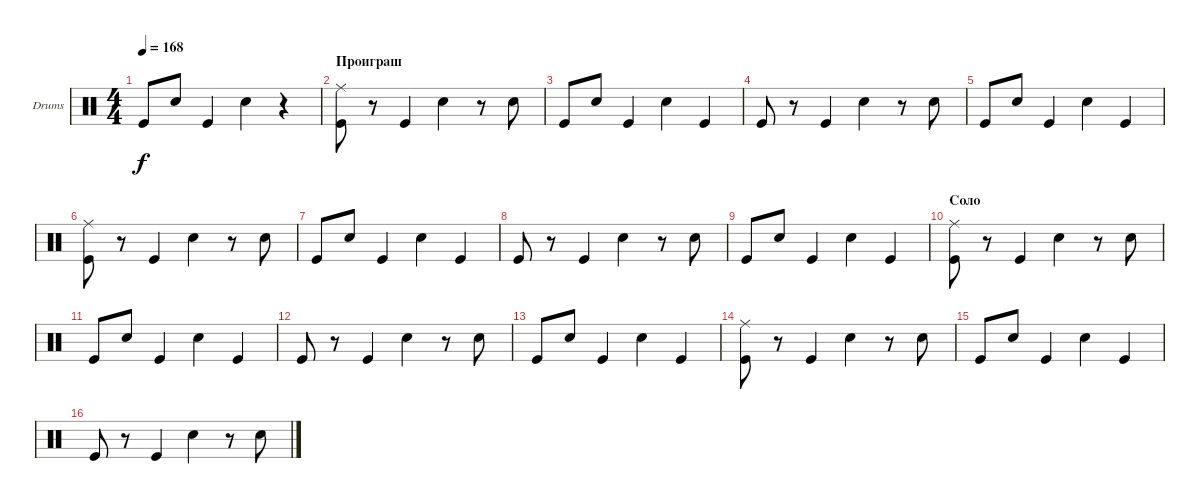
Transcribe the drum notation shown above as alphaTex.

\defaultSystemsLayout 4
\bracketExtendMode groupsimilarinstruments
\firstSystemTrackNameOrientation horizontal
\otherSystemsTrackNameOrientation horizontal
\track ("Е. Кулаков" "Drums") {instrument percussion}
\staff {score}
\articulation defaults
\ts (4 4)
\tempo 168
\clef neutral
\scale
0.333333
\ks c "Kick (hit)".8{dy f} "Snare (hit) 2".8 "Kick (hit)".4 "Snare (hit) 2".4
r.4 |
\section ("" "Проиграш")
\scale
0.333333 ("Kick (hit)" "Ride (middle)").8 r.8 "Kick (hit)".4 "Snare (hit) 2".4 r.8 "Snare (hit) 2".8 |
\scale
0.333333 "Kick (hit)".8 "Snare (hit) 2".8 "Kick (hit)".4 "Snare (hit) 2".4 "Kick (hit)".4 |
\scale
0.333333 "Kick (hit)".8 r.8 "Kick (hit)".4 "Snare (hit) 2".4 r.8 "Snare (hit) 2".8 |
\scale
0.333333 "Kick (hit)".8 "Snare (hit) 2".8 "Kick (hit)".4 "Snare (hit) 2".4 "Kick (hit)".4 |
\scale
0.333333 ("Kick (hit)" "Ride (middle)").8 r.8 "Kick (hit)".4 "Snare (hit) 2".4 r.8 "Snare (hit) 2".8 |
\scale
0.333333 "Kick (hit)".8 "Snare (hit) 2".8 "Kick (hit)".4 "Snare (hit) 2".4 "Kick (hit)".4 |
\scale
0.333333 "Kick (hit)".8 r.8 "Kick (hit)".4 "Snare (hit) 2".4 r.8 "Snare (hit) 2".8 |
\scale
0.333333 "Kick (hit)".8 "Snare (hit) 2".8 "Kick (hit)".4 "Snare (hit) 2".4 "Kick (hit)".4 |
\section ("" "Соло")
\scale
0.333333 ("Kick (hit)" "Ride (middle)").8 r.8 "Kick (hit)".4 "Snare (hit) 2".4 r.8 "Snare (hit) 2".8 |
\scale
0.333333 "Kick (hit)".8 "Snare (hit) 2".8 "Kick (hit)".4 "Snare (hit) 2".4 "Kick (hit)".4 |
\scale
0.333333 "Kick (hit)".8 r.8 "Kick (hit)".4 "Snare (hit) 2".4 r.8 "Snare (hit) 2".8 |
\scale
0.333333 "Kick (hit)".8 "Snare (hit) 2".8 "Kick (hit)".4 "Snare (hit) 2".4 "Kick (hit)".4 |
\scale
0.333333 ("Kick (hit)" "Ride (middle)").8 r.8 "Kick (hit)".4 "Snare (hit) 2".4 r.8 "Snare (hit) 2".8 |
\scale
0.333333 "Kick (hit)".8 "Snare (hit) 2".8 "Kick (hit)".4 "Snare (hit) 2".4 "Kick (hit)".4 |
\scale
0.333333 "Kick (hit)".8 r.8 "Kick (hit)".4 "Snare (hit) 2".4 r.8 "Snare (hit) 2".8
